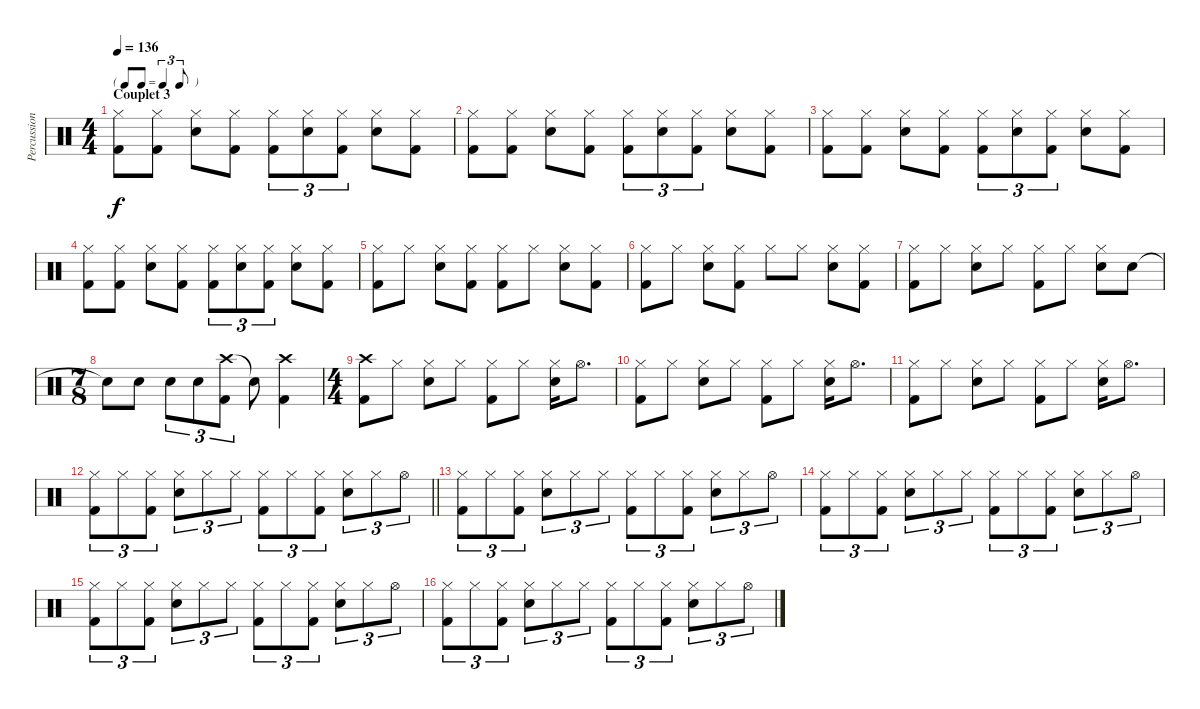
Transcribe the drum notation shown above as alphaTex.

\track ("Percussions" "Percussion") {instrument percussion}
\staff {score}
\articulation defaults
\ts (4 4)
\tf triplet8th
\section ("" "Couplet 3")
\tempo 136
\clef neutral
\ks c
("Hi-Hat (closed)" "Kick (hit) 2").8{dy f} ("Hi-Hat (closed)" "Kick (hit) 2").8 ("Hi-Hat (closed)" "Snare (hit) 2").8 ("Hi-Hat (closed)" "Kick (hit) 2").8 ("Hi-Hat (closed)" "Kick (hit) 2").8{tu (3 2)} ("Hi-Hat (closed)" "Snare (hit) 2").8{tu (3 2)} ("Hi-Hat (closed)" "Kick (hit) 2").8{tu (3 2)} ("Hi-Hat (closed)" "Snare (hit) 2").8 ("Hi-Hat (closed)" "Kick (hit) 2").8 |
("Hi-Hat (closed)" "Kick (hit) 2").8 ("Hi-Hat (closed)" "Kick (hit) 2").8 ("Hi-Hat (closed)" "Snare (hit) 2").8 ("Hi-Hat (closed)" "Kick (hit) 2").8 ("Hi-Hat (closed)" "Kick (hit) 2").8{tu (3 2)} ("Hi-Hat (closed)" "Snare (hit) 2").8{tu (3 2)} ("Hi-Hat (closed)" "Kick (hit) 2").8{tu (3 2)} ("Hi-Hat (closed)" "Snare (hit) 2").8 ("Hi-Hat (closed)" "Kick (hit) 2").8 |
("Hi-Hat (closed)" "Kick (hit) 2").8 ("Hi-Hat (closed)" "Kick (hit) 2").8 ("Hi-Hat (closed)" "Snare (hit) 2").8 ("Hi-Hat (closed)" "Kick (hit) 2").8 ("Hi-Hat (closed)" "Kick (hit) 2").8{tu (3 2)} ("Hi-Hat (closed)" "Snare (hit) 2").8{tu (3 2)} ("Hi-Hat (closed)" "Kick (hit) 2").8{tu (3 2)} ("Hi-Hat (closed)" "Snare (hit) 2").8 ("Hi-Hat (closed)" "Kick (hit) 2").8 |
("Hi-Hat (closed)" "Kick (hit) 2").8 ("Hi-Hat (closed)" "Kick (hit) 2").8 ("Hi-Hat (closed)" "Snare (hit) 2").8 ("Hi-Hat (closed)" "Kick (hit) 2").8 ("Hi-Hat (closed)" "Kick (hit) 2").8{tu (3 2)} ("Hi-Hat (closed)" "Snare (hit) 2").8{tu (3 2)} ("Hi-Hat (closed)" "Kick (hit) 2").8{tu (3 2)} ("Hi-Hat (closed)" "Snare (hit) 2").8 ("Hi-Hat (closed)" "Kick (hit) 2").8 |
("Hi-Hat (closed)" "Kick (hit) 2").8 "Hi-Hat (closed)".8 ("Hi-Hat (closed)" "Snare (hit) 2").8 ("Hi-Hat (closed)" "Kick (hit) 2").8 ("Hi-Hat (closed)" "Kick (hit) 2").8 "Hi-Hat (closed)".8 ("Hi-Hat (closed)" "Snare (hit) 2").8 ("Hi-Hat (closed)" "Kick (hit) 2").8 |
("Hi-Hat (closed)" "Kick (hit) 2").8 "Hi-Hat (closed)".8 ("Hi-Hat (closed)" "Snare (hit) 2").8 ("Hi-Hat (closed)" "Kick (hit) 2").8 "Hi-Hat (closed)".8 "Hi-Hat (closed)".8 ("Hi-Hat (closed)" "Snare (hit) 2").8 ("Hi-Hat (closed)" "Kick (hit) 2").8 |
("Hi-Hat (closed)" "Kick (hit) 2").8 "Hi-Hat (closed)".8 ("Hi-Hat (closed)" "Snare (hit) 2").8 "Hi-Hat (closed)".8 ("Hi-Hat (closed)" "Kick (hit) 2").8 "Hi-Hat (closed)".8 ("Hi-Hat (closed)" "Snare (hit) 2").8 "Snare (hit) 2".8 |
\ts (7 8)
"Snare (hit) 2"{t}.8 "Snare (hit) 2".8 "Snare (hit) 2".8{tu (3 2)} "Snare (hit) 2".8{tu (3 2)} ("Crash high (hit)" "Kick (hit) 2").8{tu (3 2)} "Snare (hit)"{t}.8 ("Crash high (hit)" "Kick (hit) 2").4 |
\ts (4 4)
("Crash high (hit)" "Kick (hit) 2").8 "Hi-Hat (closed)".8 ("Hi-Hat (closed)" "Snare (hit) 2").8 "Hi-Hat (closed)".8 ("Hi-Hat (closed)" "Kick (hit) 2").8 "Hi-Hat (closed)".8 ("Hi-Hat (closed)" "Snare (hit) 2").16 "Hi-Hat (open)".8{d} |
("Hi-Hat (closed)" "Kick (hit) 2").8 "Hi-Hat (closed)".8 ("Hi-Hat (closed)" "Snare (hit) 2").8 "Hi-Hat (closed)".8 ("Hi-Hat (closed)" "Kick (hit) 2").8 "Hi-Hat (closed)".8 ("Hi-Hat (closed)" "Snare (hit) 2").16 "Hi-Hat (open)".8{d} |
("Hi-Hat (closed)" "Kick (hit) 2").8 "Hi-Hat (closed)".8 ("Hi-Hat (closed)" "Snare (hit) 2").8 "Hi-Hat (closed)".8 ("Hi-Hat (closed)" "Kick (hit) 2").8 "Hi-Hat (closed)".8 ("Hi-Hat (closed)" "Snare (hit) 2").16 "Hi-Hat (open)".8{d} |
\barLineRight lightlight
("Hi-Hat (closed)" "Kick (hit) 2").8{tu (3 2)} "Hi-Hat (closed)".8{tu (3 2)} ("Hi-Hat (closed)" "Kick (hit) 2").8{tu (3 2)} ("Hi-Hat (closed)" "Snare (hit) 2").8{tu (3 2)} "Hi-Hat (closed)".8{tu (3 2)} "Hi-Hat (closed)".8{tu (3 2)} ("Hi-Hat (closed)" "Kick (hit) 2").8{tu (3 2)} "Hi-Hat (closed)".8{tu (3 2)} ("Hi-Hat (closed)" "Kick (hit) 2").8{tu (3 2)} ("Hi-Hat (closed)" "Snare (hit) 2").8{tu (3 2)} "Hi-Hat (closed)".8{tu (3 2)} "Hi-Hat (open)".8{tu (3 2)} |
("Hi-Hat (closed)" "Kick (hit) 2").8{tu (3 2)} "Hi-Hat (closed)".8{tu (3 2)} ("Hi-Hat (closed)" "Kick (hit) 2").8{tu (3 2)} ("Hi-Hat (closed)" "Snare (hit) 2").8{tu (3 2)} "Hi-Hat (closed)".8{tu (3 2)} "Hi-Hat (closed)".8{tu (3 2)} ("Hi-Hat (closed)" "Kick (hit) 2").8{tu (3 2)} "Hi-Hat (closed)".8{tu (3 2)} ("Hi-Hat (closed)" "Kick (hit) 2").8{tu (3 2)} ("Hi-Hat (closed)" "Snare (hit) 2").8{tu (3 2)} "Hi-Hat (closed)".8{tu (3 2)} "Hi-Hat (open)".8{tu (3 2)} |
("Hi-Hat (closed)" "Kick (hit) 2").8{tu (3 2)} "Hi-Hat (closed)".8{tu (3 2)} ("Hi-Hat (closed)" "Kick (hit) 2").8{tu (3 2)} ("Hi-Hat (closed)" "Snare (hit) 2").8{tu (3 2)} "Hi-Hat (closed)".8{tu (3 2)} "Hi-Hat (closed)".8{tu (3 2)} ("Hi-Hat (closed)" "Kick (hit) 2").8{tu (3 2)} "Hi-Hat (closed)".8{tu (3 2)} ("Hi-Hat (closed)" "Kick (hit) 2").8{tu (3 2)} ("Hi-Hat (closed)" "Snare (hit) 2").8{tu (3 2)} "Hi-Hat (closed)".8{tu (3 2)} "Hi-Hat (open)".8{tu (3 2)} |
("Hi-Hat (closed)" "Kick (hit) 2").8{tu (3 2)} "Hi-Hat (closed)".8{tu (3 2)} ("Hi-Hat (closed)" "Kick (hit) 2").8{tu (3 2)} ("Hi-Hat (closed)" "Snare (hit) 2").8{tu (3 2)} "Hi-Hat (closed)".8{tu (3 2)} "Hi-Hat (closed)".8{tu (3 2)} ("Hi-Hat (closed)" "Kick (hit) 2").8{tu (3 2)} "Hi-Hat (closed)".8{tu (3 2)} ("Hi-Hat (closed)" "Kick (hit) 2").8{tu (3 2)} ("Hi-Hat (closed)" "Snare (hit) 2").8{tu (3 2)} "Hi-Hat (closed)".8{tu (3 2)} "Hi-Hat (open)".8{tu (3 2)} |
("Hi-Hat (closed)" "Kick (hit) 2").8{tu (3 2)} "Hi-Hat (closed)".8{tu (3 2)} ("Hi-Hat (closed)" "Kick (hit) 2").8{tu (3 2)} ("Hi-Hat (closed)" "Snare (hit) 2").8{tu (3 2)} "Hi-Hat (closed)".8{tu (3 2)} "Hi-Hat (closed)".8{tu (3 2)} ("Hi-Hat (closed)" "Kick (hit) 2").8{tu (3 2)} "Hi-Hat (closed)".8{tu (3 2)} ("Hi-Hat (closed)" "Kick (hit) 2").8{tu (3 2)} ("Hi-Hat (closed)" "Snare (hit) 2").8{tu (3 2)} "Hi-Hat (closed)".8{tu (3 2)} "Hi-Hat (open)".8{tu (3 2)}
